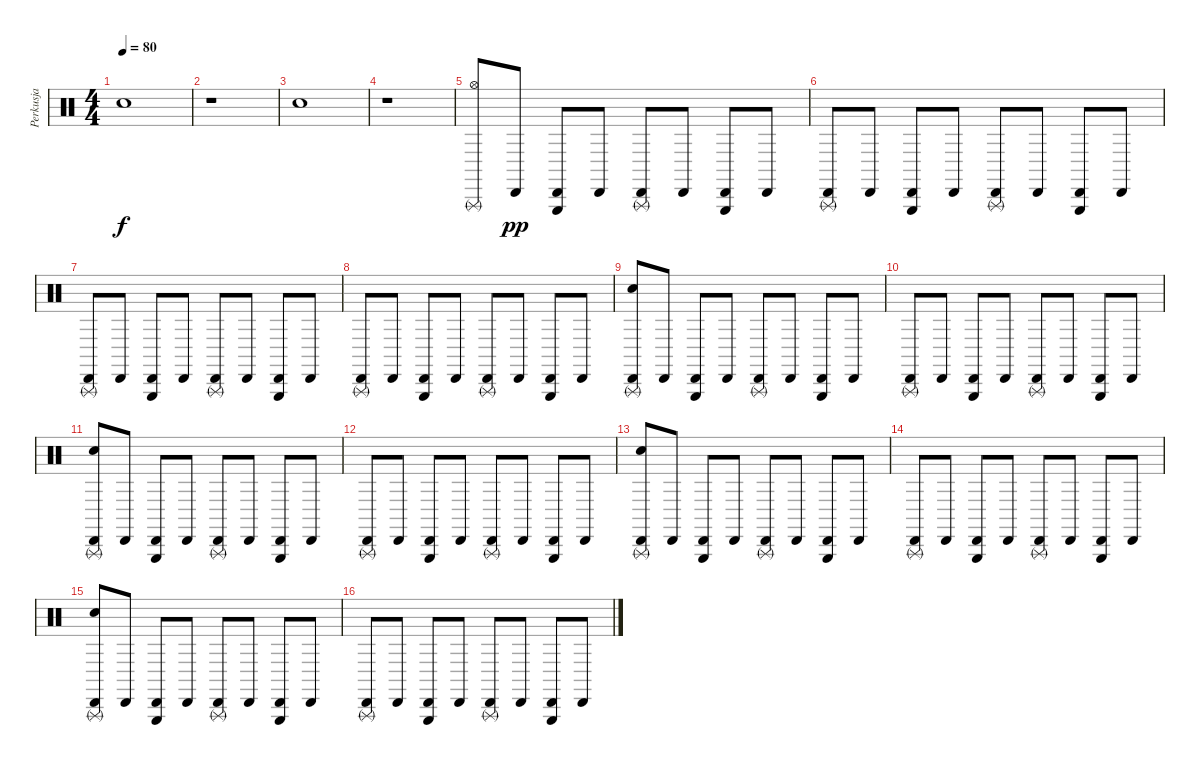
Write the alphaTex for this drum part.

\track ("Perkusja" "Perkusja") {instrument percussion}
\staff {score}
\articulation defaults
\ts (4 4)
\tempo 80
\clef neutral
\ks c "Electric Snare (hit)".1{dy f}
|
r.1 |
"Electric Snare (hit)".1 |
r.1 |
("Triangle (rnute)" "Hi-Hat (open)").8 "Cabasa (hit)".8{dy pp} ("Triangle (hit)" "Cabasa (hit)").8 "Cabasa (hit)".8 ("Triangle (rnute)" "Cabasa (hit)").8 "Cabasa (hit)".8 ("Triangle (hit)" "Cabasa (hit)").8 "Cabasa (hit)".8 |
("Triangle (rnute)" "Cabasa (hit)").8 "Cabasa (hit)".8 ("Triangle (hit)" "Cabasa (hit)").8 "Cabasa (hit)".8 ("Triangle (rnute)" "Cabasa (hit)").8 "Cabasa (hit)".8 ("Triangle (hit)" "Cabasa (hit)").8 "Cabasa (hit)".8 |
("Triangle (rnute)" "Cabasa (hit)").8 "Cabasa (hit)".8 ("Triangle (hit)" "Cabasa (hit)").8 "Cabasa (hit)".8 ("Triangle (rnute)" "Cabasa (hit)").8 "Cabasa (hit)".8 ("Triangle (hit)" "Cabasa (hit)").8 "Cabasa (hit)".8 |
("Triangle (rnute)" "Cabasa (hit)").8 "Cabasa (hit)".8 ("Triangle (hit)" "Cabasa (hit)").8 "Cabasa (hit)".8 ("Triangle (rnute)" "Cabasa (hit)").8 "Cabasa (hit)".8 ("Triangle (hit)" "Cabasa (hit)").8 "Cabasa (hit)".8 |
("Triangle (rnute)" "Cabasa (hit)" "Electric Snare (hit)").8 "Cabasa (hit)".8 ("Triangle (hit)" "Cabasa (hit)").8 "Cabasa (hit)".8 ("Triangle (rnute)" "Cabasa (hit)").8 "Cabasa (hit)".8 ("Triangle (hit)" "Cabasa (hit)").8 "Cabasa (hit)".8 |
("Triangle (rnute)" "Cabasa (hit)").8 "Cabasa (hit)".8 ("Triangle (hit)" "Cabasa (hit)").8 "Cabasa (hit)".8 ("Triangle (rnute)" "Cabasa (hit)").8 "Cabasa (hit)".8 ("Triangle (hit)" "Cabasa (hit)").8 "Cabasa (hit)".8 |
("Triangle (rnute)" "Cabasa (hit)" "Electric Snare (hit)").8 "Cabasa (hit)".8 ("Triangle (hit)" "Cabasa (hit)").8 "Cabasa (hit)".8 ("Triangle (rnute)" "Cabasa (hit)").8 "Cabasa (hit)".8 ("Triangle (hit)" "Cabasa (hit)").8 "Cabasa (hit)".8 |
("Triangle (rnute)" "Cabasa (hit)").8 "Cabasa (hit)".8 ("Triangle (hit)" "Cabasa (hit)").8 "Cabasa (hit)".8 ("Triangle (rnute)" "Cabasa (hit)").8 "Cabasa (hit)".8 ("Triangle (hit)" "Cabasa (hit)").8 "Cabasa (hit)".8 |
("Triangle (rnute)" "Cabasa (hit)" "Electric Snare (hit)").8 "Cabasa (hit)".8 ("Triangle (hit)" "Cabasa (hit)").8 "Cabasa (hit)".8 ("Triangle (rnute)" "Cabasa (hit)").8 "Cabasa (hit)".8 ("Triangle (hit)" "Cabasa (hit)").8 "Cabasa (hit)".8 |
("Triangle (rnute)" "Cabasa (hit)").8 "Cabasa (hit)".8 ("Triangle (hit)" "Cabasa (hit)").8 "Cabasa (hit)".8 ("Triangle (rnute)" "Cabasa (hit)").8 "Cabasa (hit)".8 ("Triangle (hit)" "Cabasa (hit)").8 "Cabasa (hit)".8 |
("Triangle (rnute)" "Cabasa (hit)" "Electric Snare (hit)").8 "Cabasa (hit)".8 ("Triangle (hit)" "Cabasa (hit)").8 "Cabasa (hit)".8 ("Triangle (rnute)" "Cabasa (hit)").8 "Cabasa (hit)".8 ("Triangle (hit)" "Cabasa (hit)").8 "Cabasa (hit)".8 |
("Triangle (rnute)" "Cabasa (hit)").8 "Cabasa (hit)".8 ("Triangle (hit)" "Cabasa (hit)").8 "Cabasa (hit)".8 ("Triangle (rnute)" "Cabasa (hit)").8 "Cabasa (hit)".8 ("Triangle (hit)" "Cabasa (hit)").8 "Cabasa (hit)".8
